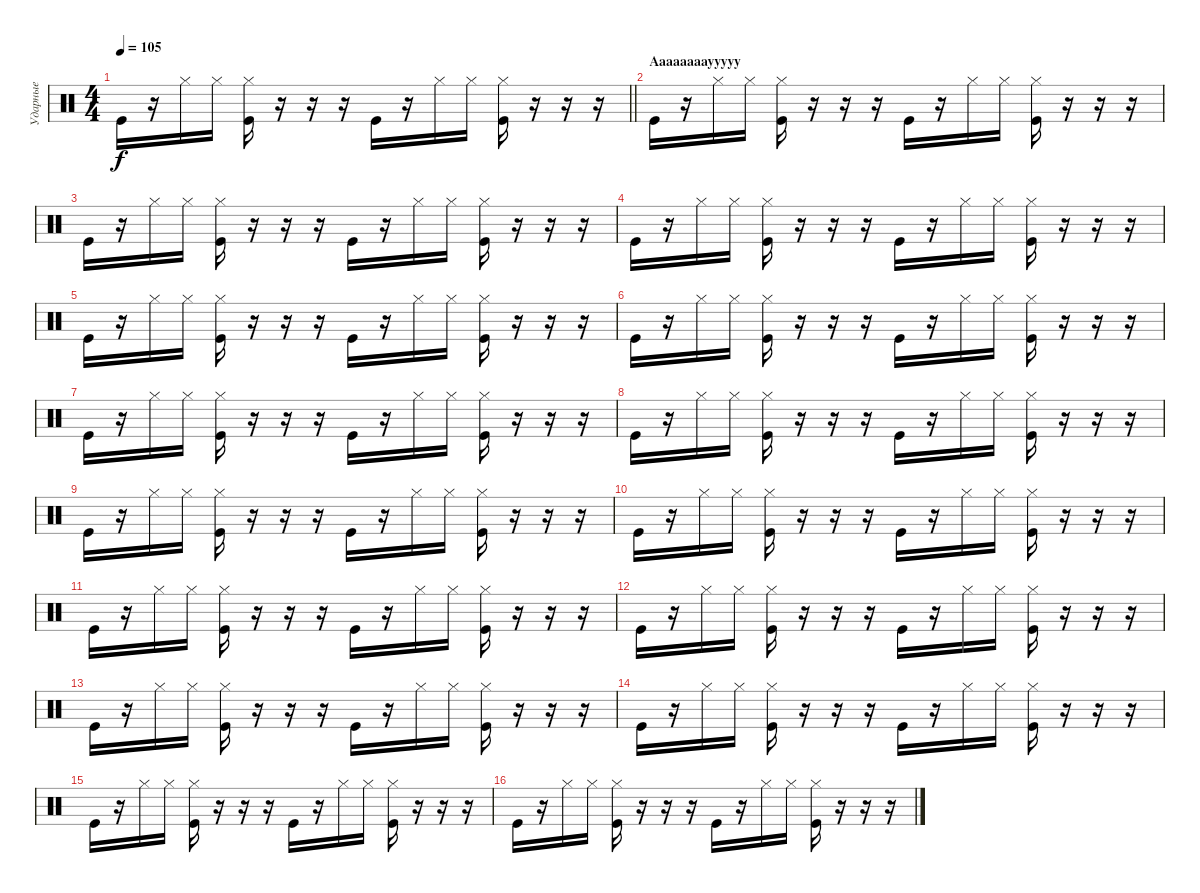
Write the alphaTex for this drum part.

\track ("Ударные" "Ударные") {instrument percussion}
\staff {score}
\articulation defaults
\ts (4 4)
\tempo 105
\clef neutral
\barLineRight lightlight
\ks c "Kick (hit)".16{dy f}
r.16 "Hi-Hat (closed)".16 "Hi-Hat (closed)".16 ("Hi-Hat (closed)" "Kick (hit)").16 r.16 r.16 r.16 "Kick (hit)".16 r.16 "Hi-Hat (closed)".16 "Hi-Hat (closed)".16 ("Hi-Hat (closed)" "Kick (hit)").16 r.16 r.16 r.16 |
\section ("" "Ааааааааууууу")
"Kick (hit)".16 r.16 "Hi-Hat (closed)".16 "Hi-Hat (closed)".16 ("Hi-Hat (closed)" "Kick (hit)").16 r.16 r.16 r.16 "Kick (hit)".16 r.16 "Hi-Hat (closed)".16 "Hi-Hat (closed)".16 ("Hi-Hat (closed)" "Kick (hit)").16 r.16 r.16 r.16 |
"Kick (hit)".16 r.16 "Hi-Hat (closed)".16 "Hi-Hat (closed)".16 ("Hi-Hat (closed)" "Kick (hit)").16 r.16 r.16 r.16 "Kick (hit)".16 r.16 "Hi-Hat (closed)".16 "Hi-Hat (closed)".16 ("Hi-Hat (closed)" "Kick (hit)").16 r.16 r.16 r.16 |
"Kick (hit)".16 r.16 "Hi-Hat (closed)".16 "Hi-Hat (closed)".16 ("Hi-Hat (closed)" "Kick (hit)").16 r.16 r.16 r.16 "Kick (hit)".16 r.16 "Hi-Hat (closed)".16 "Hi-Hat (closed)".16 ("Hi-Hat (closed)" "Kick (hit)").16 r.16 r.16 r.16 |
"Kick (hit)".16 r.16 "Hi-Hat (closed)".16 "Hi-Hat (closed)".16 ("Hi-Hat (closed)" "Kick (hit)").16 r.16 r.16 r.16 "Kick (hit)".16 r.16 "Hi-Hat (closed)".16 "Hi-Hat (closed)".16 ("Hi-Hat (closed)" "Kick (hit)").16 r.16 r.16 r.16 |
"Kick (hit)".16 r.16 "Hi-Hat (closed)".16 "Hi-Hat (closed)".16 ("Hi-Hat (closed)" "Kick (hit)").16 r.16 r.16 r.16 "Kick (hit)".16 r.16 "Hi-Hat (closed)".16 "Hi-Hat (closed)".16 ("Hi-Hat (closed)" "Kick (hit)").16 r.16 r.16 r.16 |
"Kick (hit)".16 r.16 "Hi-Hat (closed)".16 "Hi-Hat (closed)".16 ("Hi-Hat (closed)" "Kick (hit)").16 r.16 r.16 r.16 "Kick (hit)".16 r.16 "Hi-Hat (closed)".16 "Hi-Hat (closed)".16 ("Hi-Hat (closed)" "Kick (hit)").16 r.16 r.16 r.16 |
"Kick (hit)".16 r.16 "Hi-Hat (closed)".16 "Hi-Hat (closed)".16 ("Hi-Hat (closed)" "Kick (hit)").16 r.16 r.16 r.16 "Kick (hit)".16 r.16 "Hi-Hat (closed)".16 "Hi-Hat (closed)".16 ("Hi-Hat (closed)" "Kick (hit)").16 r.16 r.16 r.16 |
"Kick (hit)".16 r.16 "Hi-Hat (closed)".16 "Hi-Hat (closed)".16 ("Hi-Hat (closed)" "Kick (hit)").16 r.16 r.16 r.16 "Kick (hit)".16 r.16 "Hi-Hat (closed)".16 "Hi-Hat (closed)".16 ("Hi-Hat (closed)" "Kick (hit)").16 r.16 r.16 r.16 |
"Kick (hit)".16 r.16 "Hi-Hat (closed)".16 "Hi-Hat (closed)".16 ("Hi-Hat (closed)" "Kick (hit)").16 r.16 r.16 r.16 "Kick (hit)".16 r.16 "Hi-Hat (closed)".16 "Hi-Hat (closed)".16 ("Hi-Hat (closed)" "Kick (hit)").16 r.16 r.16 r.16 |
"Kick (hit)".16 r.16 "Hi-Hat (closed)".16 "Hi-Hat (closed)".16 ("Hi-Hat (closed)" "Kick (hit)").16 r.16 r.16 r.16 "Kick (hit)".16 r.16 "Hi-Hat (closed)".16 "Hi-Hat (closed)".16 ("Hi-Hat (closed)" "Kick (hit)").16 r.16 r.16 r.16 |
"Kick (hit)".16 r.16 "Hi-Hat (closed)".16 "Hi-Hat (closed)".16 ("Hi-Hat (closed)" "Kick (hit)").16 r.16 r.16 r.16 "Kick (hit)".16 r.16 "Hi-Hat (closed)".16 "Hi-Hat (closed)".16 ("Hi-Hat (closed)" "Kick (hit)").16 r.16 r.16 r.16 |
"Kick (hit)".16 r.16 "Hi-Hat (closed)".16 "Hi-Hat (closed)".16 ("Hi-Hat (closed)" "Kick (hit)").16 r.16 r.16 r.16 "Kick (hit)".16 r.16 "Hi-Hat (closed)".16 "Hi-Hat (closed)".16 ("Hi-Hat (closed)" "Kick (hit)").16 r.16 r.16 r.16 |
"Kick (hit)".16 r.16 "Hi-Hat (closed)".16 "Hi-Hat (closed)".16 ("Hi-Hat (closed)" "Kick (hit)").16 r.16 r.16 r.16 "Kick (hit)".16 r.16 "Hi-Hat (closed)".16 "Hi-Hat (closed)".16 ("Hi-Hat (closed)" "Kick (hit)").16 r.16 r.16 r.16 |
"Kick (hit)".16 r.16 "Hi-Hat (closed)".16 "Hi-Hat (closed)".16 ("Hi-Hat (closed)" "Kick (hit)").16 r.16 r.16 r.16 "Kick (hit)".16 r.16 "Hi-Hat (closed)".16 "Hi-Hat (closed)".16 ("Hi-Hat (closed)" "Kick (hit)").16 r.16 r.16 r.16 |
"Kick (hit)".16 r.16 "Hi-Hat (closed)".16 "Hi-Hat (closed)".16 ("Hi-Hat (closed)" "Kick (hit)").16 r.16 r.16 r.16 "Kick (hit)".16 r.16 "Hi-Hat (closed)".16 "Hi-Hat (closed)".16 ("Hi-Hat (closed)" "Kick (hit)").16 r.16 r.16 r.16
